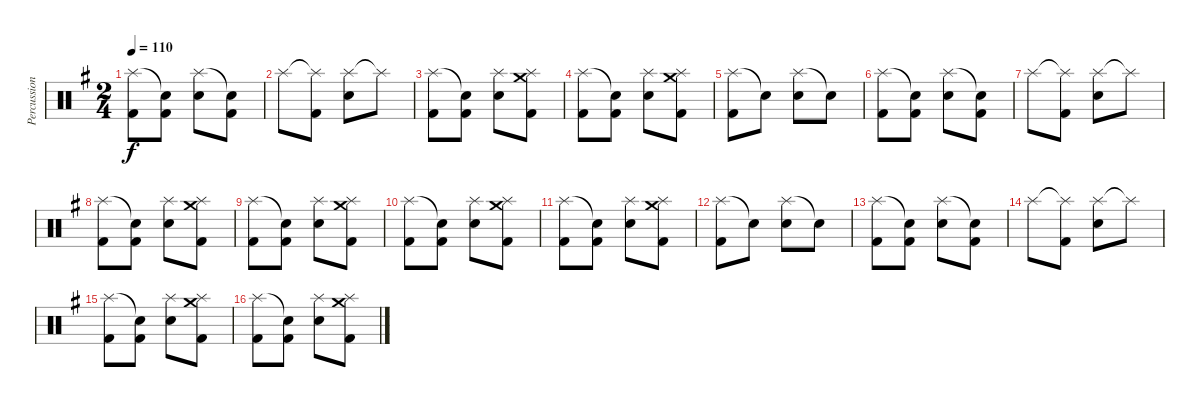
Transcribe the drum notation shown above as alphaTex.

\track ("Percussion" "Percussion") {instrument percussion}
\staff {score}
\articulation defaults
\ts (2 4)
\tempo 110
\clef neutral
\ks g
("Splash (hit)" "Kick (hit) 2").8{dy f} ("Snare (hit)"{t} "Kick (hit) 2").8 ("Splash (hit)" "Electric Snare (hit)").8 ("Snare (hit)"{t} "Kick (hit) 2").8 |
"Splash (hit)".8 ("Splash (hit)"{t} "Kick (hit) 2").8 ("Splash (hit)" "Electric Snare (hit)").8 "Splash (hit)"{t}.8 |
("Splash (hit)" "Kick (hit) 2").8 ("Snare (hit)"{t} "Kick (hit) 2").8 ("Splash (hit)" "Electric Snare (hit)").8 ("Crash medium (hit)" "Splash (hit)" "Kick (hit) 2").8 |
("Splash (hit)" "Kick (hit) 2").8 ("Snare (hit)"{t} "Kick (hit) 2").8 ("Splash (hit)" "Electric Snare (hit)").8 ("Crash medium (hit)" "Splash (hit)" "Kick (hit) 2").8 |
("Splash (hit)" "Kick (hit) 2").8 "Snare (hit)"{t}.8 ("Splash (hit)" "Electric Snare (hit)").8 "Snare (hit)"{t}.8 |
("Splash (hit)" "Kick (hit) 2").8 ("Snare (hit)"{t} "Kick (hit) 2").8 ("Splash (hit)" "Electric Snare (hit)").8 ("Snare (hit)"{t} "Kick (hit) 2").8 |
"Splash (hit)".8 ("Splash (hit)"{t} "Kick (hit) 2").8 ("Splash (hit)" "Electric Snare (hit)").8 "Splash (hit)"{t}.8 |
("Splash (hit)" "Kick (hit) 2").8 ("Snare (hit)"{t} "Kick (hit) 2").8 ("Splash (hit)" "Electric Snare (hit)").8 ("Crash medium (hit)" "Splash (hit)" "Kick (hit) 2").8 |
("Splash (hit)" "Kick (hit) 2").8 ("Snare (hit)"{t} "Kick (hit) 2").8 ("Splash (hit)" "Electric Snare (hit)").8 ("Crash medium (hit)" "Splash (hit)" "Kick (hit) 2").8 |
("Splash (hit)" "Kick (hit) 2").8 ("Snare (hit)"{t} "Kick (hit) 2").8 ("Splash (hit)" "Electric Snare (hit)").8 ("Crash medium (hit)" "Splash (hit)" "Kick (hit) 2").8 |
("Splash (hit)" "Kick (hit) 2").8 ("Snare (hit)"{t} "Kick (hit) 2").8 ("Splash (hit)" "Electric Snare (hit)").8 ("Crash medium (hit)" "Splash (hit)" "Kick (hit) 2").8 |
("Splash (hit)" "Kick (hit) 2").8 "Snare (hit)"{t}.8 ("Splash (hit)" "Electric Snare (hit)").8 "Snare (hit)"{t}.8 |
("Splash (hit)" "Kick (hit) 2").8 ("Snare (hit)"{t} "Kick (hit) 2").8 ("Splash (hit)" "Electric Snare (hit)").8 ("Snare (hit)"{t} "Kick (hit) 2").8 |
"Splash (hit)".8 ("Splash (hit)"{t} "Kick (hit) 2").8 ("Splash (hit)" "Electric Snare (hit)").8 "Splash (hit)"{t}.8 |
("Splash (hit)" "Kick (hit) 2").8 ("Snare (hit)"{t} "Kick (hit) 2").8 ("Splash (hit)" "Electric Snare (hit)").8 ("Crash medium (hit)" "Splash (hit)" "Kick (hit) 2").8 |
("Splash (hit)" "Kick (hit) 2").8 ("Snare (hit)"{t} "Kick (hit) 2").8 ("Splash (hit)" "Electric Snare (hit)").8 ("Crash medium (hit)" "Splash (hit)" "Kick (hit) 2").8
